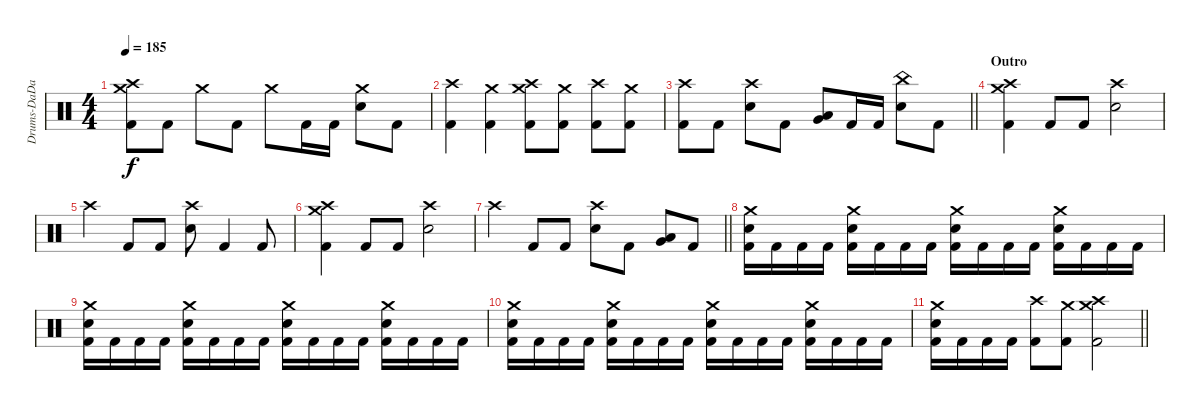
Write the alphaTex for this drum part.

\track ("Drums-DaDa" "Drums-DaDa") {instrument percussion}
\staff {score}
\articulation defaults
\ts (4 4)
\tempo 185
\clef neutral
\ks c
("Crash medium (hit)" "Crash high (hit)" "Kick (hit) 2").8{dy f} "Kick (hit) 2".8 "Crash medium (hit)".8 "Kick (hit) 2".8 "Crash medium (hit)".8 "Kick (hit) 2".16 "Kick (hit) 2".16 ("Crash medium (hit)" "Electric Snare (hit)").8 "Kick (hit) 2".8 |
("Crash high (hit)" "Kick (hit) 2").4 ("Crash medium (hit)" "Kick (hit) 2").4 ("Crash medium (hit)" "Crash high (hit)" "Kick (hit) 2").8 ("Crash medium (hit)" "Kick (hit) 2").8 ("Crash high (hit)" "Kick (hit) 2").8 ("Crash medium (hit)" "Kick (hit) 2").8 |
\barLineRight lightlight
("Crash high (hit)" "Kick (hit) 2").8 "Kick (hit) 2".8 ("Crash high (hit)" "Electric Snare (hit)").8 "Kick (hit) 2".8 ("Low Tom (hit)" "Very Low Tom (hit)").8 "Kick (hit) 2".16 "Kick (hit) 2".16 ("China (hit)" "Electric Snare (hit)").8 "Kick (hit) 2".8 |
\section ("" "Outro")
("Crash medium (hit)" "Crash high (hit)" "Kick (hit) 2").4 "Kick (hit) 2".8 "Kick (hit) 2".8 ("Crash high (hit)" "Electric Snare (hit)").2 |
"Crash high (hit)".4 "Kick (hit) 2".8 "Kick (hit) 2".8 ("Crash high (hit)" "Electric Snare (hit)").8 "Kick (hit) 2".4 "Kick (hit) 2".8 |
("Crash medium (hit)" "Crash high (hit)" "Kick (hit) 2").4 "Kick (hit) 2".8 "Kick (hit) 2".8 ("Crash high (hit)" "Electric Snare (hit)").2 |
\barLineRight lightlight "Crash high (hit)".4 "Kick (hit) 2".8 "Kick (hit) 2".8
("Crash high (hit)" "Electric Snare (hit)").8 "Kick (hit) 2".8 ("Low Floor Tom (hit)" "Very Low Tom (hit)").8 "Kick (hit) 2".8 |
("Crash medium (hit)" "Electric Snare (hit)" "Kick (hit) 2").16 "Kick (hit) 2".16 "Kick (hit) 2".16 "Kick (hit) 2".16 ("Crash medium (hit)" "Electric Snare (hit)" "Kick (hit) 2").16 "Kick (hit) 2".16 "Kick (hit) 2".16 "Kick (hit) 2".16 ("Crash medium (hit)" "Electric Snare (hit)" "Kick (hit) 2").16 "Kick (hit) 2".16 "Kick (hit) 2".16 "Kick (hit) 2".16 ("Crash medium (hit)" "Electric Snare (hit)" "Kick (hit) 2").16 "Kick (hit) 2".16 "Kick (hit) 2".16 "Kick (hit) 2".16 |
("Crash medium (hit)" "Electric Snare (hit)" "Kick (hit) 2").16 "Kick (hit) 2".16 "Kick (hit) 2".16 "Kick (hit) 2".16 ("Crash medium (hit)" "Electric Snare (hit)" "Kick (hit) 2").16 "Kick (hit) 2".16 "Kick (hit) 2".16 "Kick (hit) 2".16 ("Crash medium (hit)" "Electric Snare (hit)" "Kick (hit) 2").16 "Kick (hit) 2".16 "Kick (hit) 2".16 "Kick (hit) 2".16 ("Crash medium (hit)" "Electric Snare (hit)" "Kick (hit) 2").16 "Kick (hit) 2".16 "Kick (hit) 2".16 "Kick (hit) 2".16 |
("Crash medium (hit)" "Electric Snare (hit)" "Kick (hit) 2").16 "Kick (hit) 2".16 "Kick (hit) 2".16 "Kick (hit) 2".16 ("Crash medium (hit)" "Electric Snare (hit)" "Kick (hit) 2").16 "Kick (hit) 2".16 "Kick (hit) 2".16 "Kick (hit) 2".16 ("Crash medium (hit)" "Electric Snare (hit)" "Kick (hit) 2").16 "Kick (hit) 2".16 "Kick (hit) 2".16 "Kick (hit) 2".16 ("Crash medium (hit)" "Electric Snare (hit)" "Kick (hit) 2").16 "Kick (hit) 2".16 "Kick (hit) 2".16 "Kick (hit) 2".16 |
\barLineRight lightlight
("Crash medium (hit)" "Electric Snare (hit)" "Kick (hit) 2").16 "Kick (hit) 2".16 "Kick (hit) 2".16 "Kick (hit) 2".16 ("Crash high (hit)" "Kick (hit) 2").8 ("Crash medium (hit)" "Kick (hit) 2").8 ("Crash medium (hit)" "Crash high (hit)" "Kick (hit) 2").2
